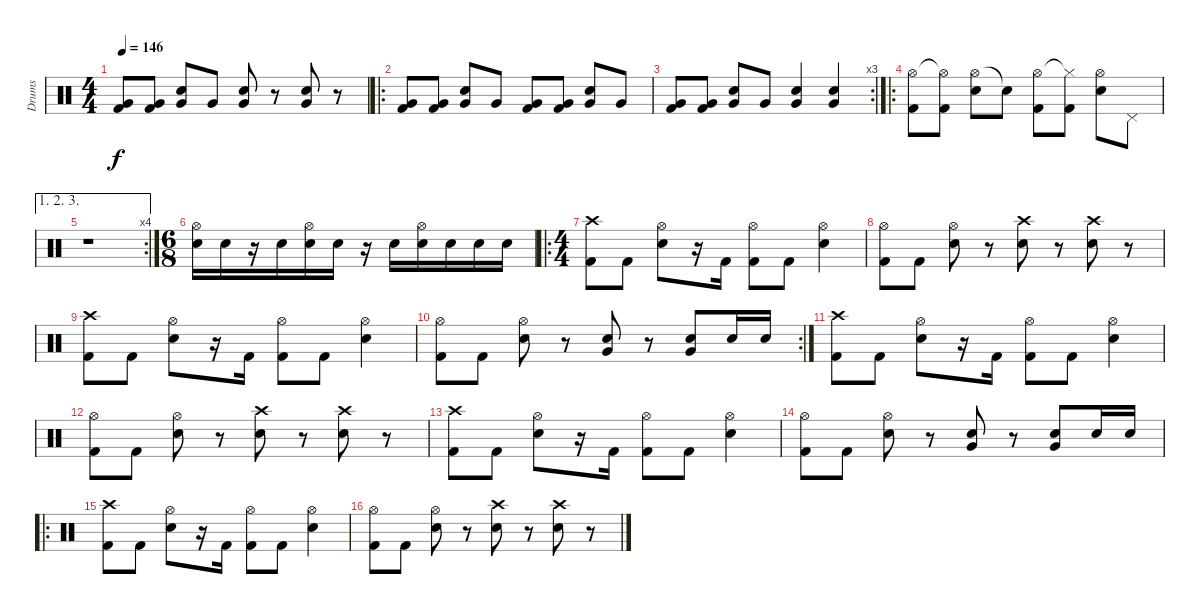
\track ("Drums" "Drums") {instrument percussion}
\staff {score}
\articulation defaults
\ts (4 4)
\tempo 146
\clef neutral
\ks c
("Very Low Tom (hit)" "Kick (hit) 2").8{dy f} ("Very Low Tom (hit)" "Kick (hit) 2").8 ("Very Low Tom (hit)" "Snare (hit) 2").8 "Very Low Tom (hit)".8 ("Very Low Tom (hit)" "Snare (hit) 2").8 r.8 ("Very Low Tom (hit)" "Snare (hit) 2").8 r.8 |
\ro
("Very Low Tom (hit)" "Kick (hit) 2").8 ("Very Low Tom (hit)" "Kick (hit) 2").8 ("Very Low Tom (hit)" "Snare (hit) 2").8 "Very Low Tom (hit)".8 ("Very Low Tom (hit)" "Kick (hit) 2").8 ("Very Low Tom (hit)" "Kick (hit) 2").8 ("Very Low Tom (hit)" "Snare (hit) 2").8 "Very Low Tom (hit)".8 |
\rc 3
("Very Low Tom (hit)" "Kick (hit) 2").8 ("Very Low Tom (hit)" "Kick (hit) 2").8 ("Very Low Tom (hit)" "Snare (hit) 2").8 "Very Low Tom (hit)".8 ("Very Low Tom (hit)" "Snare (hit) 2").4 ("Very Low Tom (hit)" "Snare (hit) 2").4 |
\ro
("Hi-Hat (open)" "Kick (hit) 2").8 ("Hi-Hat (open)"{t} "Kick (hit) 2").8 ("Hi-Hat (open)" "Snare (hit) 2").8 "Snare (hit)"{t}.8 ("Hi-Hat (open)" "Kick (hit) 2").8 ("Hi-Hat (closed)"{t} "Kick (hit) 2").8 ("Hi-Hat (open)" "Snare (hit) 2").8 "Pedal Hi-Hat (hit)".8 |
\ae (1 2 3)
\rc 4
r.1 |
\ts (6 8)
("Hi-Hat (open)" "Snare (hit) 2").16 "Snare (hit) 2".16 r.16 "Snare (hit) 2".16 ("Hi-Hat (open)" "Snare (hit) 2").16 "Snare (hit) 2".16 r.16 "Snare (hit) 2".16 ("Hi-Hat (open)" "Snare (hit) 2").16 "Snare (hit) 2".16 "Snare (hit) 2".16 "Snare (hit) 2".16 |
\ro
\ts (4 4)
("Crash high (hit)" "Kick (hit) 2").8 "Kick (hit) 2".8 ("Hi-Hat (open)" "Snare (hit) 2").8 r.16 "Kick (hit) 2".16 ("Hi-Hat (open)" "Kick (hit) 2").8 "Kick (hit) 2".8 ("Hi-Hat (open)" "Snare (hit) 2").4 |
("Hi-Hat (open)" "Kick (hit) 2").8 "Kick (hit) 2".8 ("Hi-Hat (open)" "Snare (hit) 2").8 r.8 ("Crash high (hit)" "Snare (hit) 2").8 r.8 ("Crash high (hit)" "Snare (hit) 2").8 r.8 |
("Crash high (hit)" "Kick (hit) 2").8 "Kick (hit) 2".8 ("Hi-Hat (open)" "Snare (hit) 2").8 r.16 "Kick (hit) 2".16 ("Hi-Hat (open)" "Kick (hit) 2").8 "Kick (hit) 2".8 ("Hi-Hat (open)" "Snare (hit) 2").4 |
\rc 2
("Hi-Hat (open)" "Kick (hit) 2").8 "Kick (hit) 2".8 ("Hi-Hat (open)" "Snare (hit) 2").8 r.8 ("Very Low Tom (hit)" "Snare (hit) 2").8 r.8 ("Very Low Tom (hit)" "Snare (hit) 2").8 "Snare (hit) 2".16 "Snare (hit) 2".16 |
("Crash high (hit)" "Kick (hit) 2").8 "Kick (hit) 2".8 ("Hi-Hat (open)" "Snare (hit) 2").8 r.16 "Kick (hit) 2".16 ("Hi-Hat (open)" "Kick (hit) 2").8 "Kick (hit) 2".8 ("Hi-Hat (open)" "Snare (hit) 2").4 |
("Hi-Hat (open)" "Kick (hit) 2").8 "Kick (hit) 2".8 ("Hi-Hat (open)" "Snare (hit) 2").8 r.8 ("Crash high (hit)" "Snare (hit) 2").8 r.8 ("Crash high (hit)" "Snare (hit) 2").8 r.8 |
("Crash high (hit)" "Kick (hit) 2").8 "Kick (hit) 2".8 ("Hi-Hat (open)" "Snare (hit) 2").8 r.16 "Kick (hit) 2".16 ("Hi-Hat (open)" "Kick (hit) 2").8 "Kick (hit) 2".8 ("Hi-Hat (open)" "Snare (hit) 2").4 |
("Hi-Hat (open)" "Kick (hit) 2").8 "Kick (hit) 2".8 ("Hi-Hat (open)" "Snare (hit) 2").8 r.8 ("Very Low Tom (hit)" "Snare (hit) 2").8 r.8 ("Very Low Tom (hit)" "Snare (hit) 2").8 "Snare (hit) 2".16 "Snare (hit) 2".16 |
\ro
("Crash high (hit)" "Kick (hit) 2").8 "Kick (hit) 2".8 ("Hi-Hat (open)" "Snare (hit) 2").8 r.16 "Kick (hit) 2".16 ("Hi-Hat (open)" "Kick (hit) 2").8 "Kick (hit) 2".8 ("Hi-Hat (open)" "Snare (hit) 2").4 |
("Hi-Hat (open)" "Kick (hit) 2").8 "Kick (hit) 2".8 ("Hi-Hat (open)" "Snare (hit) 2").8 r.8 ("Crash high (hit)" "Snare (hit) 2").8 r.8 ("Crash high (hit)" "Snare (hit) 2").8 r.8
